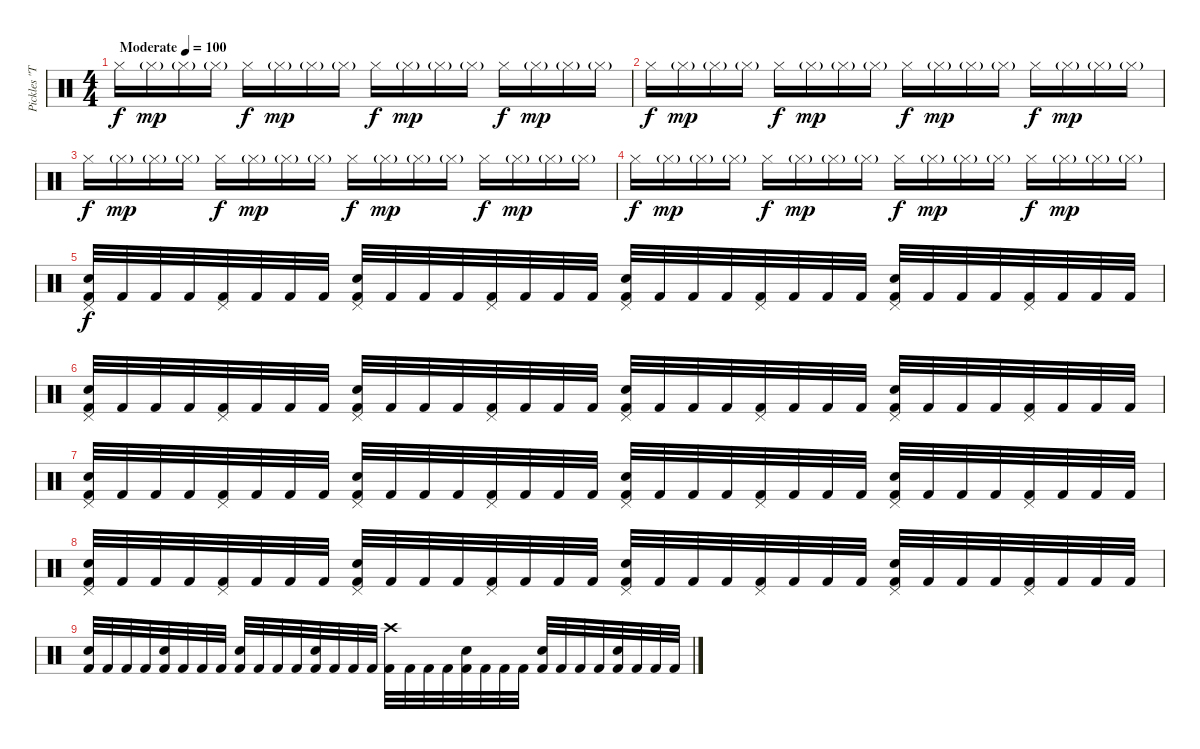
\track ("Pickles \"The Drummer\"" "Pickles \"T") {instrument percussion}
\staff {score}
\articulation defaults
\ts (4 4)
\tempo (100 "Moderate")
\clef neutral
\ks c "Hi-Hat (closed)".16{dy f} "Hi-Hat (closed)"{g}.16{dy mp} "Hi-Hat (closed)"{g}.16 "Hi-Hat (closed)"{g}.16 "Hi-Hat (closed)".16{dy f} "Hi-Hat (closed)"{g}.16{dy mp} "Hi-Hat (closed)"{g}.16 "Hi-Hat (closed)"{g}.16 "Hi-Hat (closed)".16{dy f} "Hi-Hat (closed)"{g}.16{dy mp} "Hi-Hat (closed)"{g}.16 "Hi-Hat (closed)"{g}.16 "Hi-Hat (closed)".16{dy f} "Hi-Hat (closed)"{g}.16{dy mp} "Hi-Hat (closed)"{g}.16 "Hi-Hat (closed)"{g}.16
|
"Hi-Hat (closed)".16{dy f} "Hi-Hat (closed)"{g}.16{dy mp} "Hi-Hat (closed)"{g}.16 "Hi-Hat (closed)"{g}.16 "Hi-Hat (closed)".16{dy f} "Hi-Hat (closed)"{g}.16{dy mp} "Hi-Hat (closed)"{g}.16 "Hi-Hat (closed)"{g}.16 "Hi-Hat (closed)".16{dy f} "Hi-Hat (closed)"{g}.16{dy mp} "Hi-Hat (closed)"{g}.16 "Hi-Hat (closed)"{g}.16 "Hi-Hat (closed)".16{dy f} "Hi-Hat (closed)"{g}.16{dy mp} "Hi-Hat (closed)"{g}.16 "Hi-Hat (closed)"{g}.16 |
"Hi-Hat (closed)".16{dy f} "Hi-Hat (closed)"{g}.16{dy mp} "Hi-Hat (closed)"{g}.16 "Hi-Hat (closed)"{g}.16 "Hi-Hat (closed)".16{dy f} "Hi-Hat (closed)"{g}.16{dy mp} "Hi-Hat (closed)"{g}.16 "Hi-Hat (closed)"{g}.16 "Hi-Hat (closed)".16{dy f} "Hi-Hat (closed)"{g}.16{dy mp} "Hi-Hat (closed)"{g}.16 "Hi-Hat (closed)"{g}.16 "Hi-Hat (closed)".16{dy f} "Hi-Hat (closed)"{g}.16{dy mp} "Hi-Hat (closed)"{g}.16 "Hi-Hat (closed)"{g}.16 |
"Hi-Hat (closed)".16{dy f} "Hi-Hat (closed)"{g}.16{dy mp} "Hi-Hat (closed)"{g}.16 "Hi-Hat (closed)"{g}.16 "Hi-Hat (closed)".16{dy f} "Hi-Hat (closed)"{g}.16{dy mp} "Hi-Hat (closed)"{g}.16 "Hi-Hat (closed)"{g}.16 "Hi-Hat (closed)".16{dy f} "Hi-Hat (closed)"{g}.16{dy mp} "Hi-Hat (closed)"{g}.16 "Hi-Hat (closed)"{g}.16 "Hi-Hat (closed)".16{dy f} "Hi-Hat (closed)"{g}.16{dy mp} "Hi-Hat (closed)"{g}.16 "Hi-Hat (closed)"{g}.16 |
("Pedal Hi-Hat (hit)" "Electric Snare (hit)" "Kick (hit) 2").32{dy f} "Kick (hit) 2".32 "Kick (hit) 2".32 "Kick (hit) 2".32 ("Pedal Hi-Hat (hit)" "Kick (hit) 2").32 "Kick (hit) 2".32 "Kick (hit) 2".32 "Kick (hit) 2".32 ("Pedal Hi-Hat (hit)" "Electric Snare (hit)" "Kick (hit) 2").32 "Kick (hit) 2".32 "Kick (hit) 2".32 "Kick (hit) 2".32 ("Pedal Hi-Hat (hit)" "Kick (hit) 2").32 "Kick (hit) 2".32 "Kick (hit) 2".32 "Kick (hit) 2".32 ("Pedal Hi-Hat (hit)" "Electric Snare (hit)" "Kick (hit) 2").32 "Kick (hit) 2".32 "Kick (hit) 2".32 "Kick (hit) 2".32 ("Pedal Hi-Hat (hit)" "Kick (hit) 2").32 "Kick (hit) 2".32 "Kick (hit) 2".32 "Kick (hit) 2".32 ("Pedal Hi-Hat (hit)" "Electric Snare (hit)" "Kick (hit) 2").32 "Kick (hit) 2".32 "Kick (hit) 2".32 "Kick (hit) 2".32 ("Pedal Hi-Hat (hit)" "Kick (hit) 2").32 "Kick (hit) 2".32 "Kick (hit) 2".32 "Kick (hit) 2".32 |
("Pedal Hi-Hat (hit)" "Electric Snare (hit)" "Kick (hit) 2").32 "Kick (hit) 2".32 "Kick (hit) 2".32 "Kick (hit) 2".32 ("Pedal Hi-Hat (hit)" "Kick (hit) 2").32 "Kick (hit) 2".32 "Kick (hit) 2".32 "Kick (hit) 2".32 ("Pedal Hi-Hat (hit)" "Electric Snare (hit)" "Kick (hit) 2").32 "Kick (hit) 2".32 "Kick (hit) 2".32 "Kick (hit) 2".32 ("Pedal Hi-Hat (hit)" "Kick (hit) 2").32 "Kick (hit) 2".32 "Kick (hit) 2".32 "Kick (hit) 2".32 ("Pedal Hi-Hat (hit)" "Electric Snare (hit)" "Kick (hit) 2").32 "Kick (hit) 2".32 "Kick (hit) 2".32 "Kick (hit) 2".32 ("Pedal Hi-Hat (hit)" "Kick (hit) 2").32 "Kick (hit) 2".32 "Kick (hit) 2".32 "Kick (hit) 2".32 ("Pedal Hi-Hat (hit)" "Electric Snare (hit)" "Kick (hit) 2").32 "Kick (hit) 2".32 "Kick (hit) 2".32 "Kick (hit) 2".32 ("Pedal Hi-Hat (hit)" "Kick (hit) 2").32 "Kick (hit) 2".32 "Kick (hit) 2".32 "Kick (hit) 2".32 |
("Pedal Hi-Hat (hit)" "Electric Snare (hit)" "Kick (hit) 2").32 "Kick (hit) 2".32 "Kick (hit) 2".32 "Kick (hit) 2".32 ("Pedal Hi-Hat (hit)" "Kick (hit) 2").32 "Kick (hit) 2".32 "Kick (hit) 2".32 "Kick (hit) 2".32 ("Pedal Hi-Hat (hit)" "Electric Snare (hit)" "Kick (hit) 2").32 "Kick (hit) 2".32 "Kick (hit) 2".32 "Kick (hit) 2".32 ("Pedal Hi-Hat (hit)" "Kick (hit) 2").32 "Kick (hit) 2".32 "Kick (hit) 2".32 "Kick (hit) 2".32 ("Pedal Hi-Hat (hit)" "Electric Snare (hit)" "Kick (hit) 2").32 "Kick (hit) 2".32 "Kick (hit) 2".32 "Kick (hit) 2".32 ("Pedal Hi-Hat (hit)" "Kick (hit) 2").32 "Kick (hit) 2".32 "Kick (hit) 2".32 "Kick (hit) 2".32 ("Pedal Hi-Hat (hit)" "Electric Snare (hit)" "Kick (hit) 2").32 "Kick (hit) 2".32 "Kick (hit) 2".32 "Kick (hit) 2".32 ("Pedal Hi-Hat (hit)" "Kick (hit) 2").32 "Kick (hit) 2".32 "Kick (hit) 2".32 "Kick (hit) 2".32 |
("Pedal Hi-Hat (hit)" "Electric Snare (hit)" "Kick (hit) 2").32 "Kick (hit) 2".32 "Kick (hit) 2".32 "Kick (hit) 2".32 ("Pedal Hi-Hat (hit)" "Kick (hit) 2").32 "Kick (hit) 2".32 "Kick (hit) 2".32 "Kick (hit) 2".32 ("Pedal Hi-Hat (hit)" "Electric Snare (hit)" "Kick (hit) 2").32 "Kick (hit) 2".32 "Kick (hit) 2".32 "Kick (hit) 2".32 ("Pedal Hi-Hat (hit)" "Kick (hit) 2").32 "Kick (hit) 2".32 "Kick (hit) 2".32 "Kick (hit) 2".32 ("Pedal Hi-Hat (hit)" "Electric Snare (hit)" "Kick (hit) 2").32 "Kick (hit) 2".32 "Kick (hit) 2".32 "Kick (hit) 2".32 ("Pedal Hi-Hat (hit)" "Kick (hit) 2").32 "Kick (hit) 2".32 "Kick (hit) 2".32 "Kick (hit) 2".32 ("Pedal Hi-Hat (hit)" "Electric Snare (hit)" "Kick (hit) 2").32 "Kick (hit) 2".32 "Kick (hit) 2".32 "Kick (hit) 2".32 ("Pedal Hi-Hat (hit)" "Kick (hit) 2").32 "Kick (hit) 2".32 "Kick (hit) 2".32 "Kick (hit) 2".32 |
("Electric Snare (hit)" "Kick (hit) 2").32 "Kick (hit) 2".32 "Kick (hit) 2".32 "Kick (hit) 2".32 ("Electric Snare (hit)" "Kick (hit) 2").32 "Kick (hit) 2".32 "Kick (hit) 2".32 "Kick (hit) 2".32 ("Electric Snare (hit)" "Kick (hit) 2").32 "Kick (hit) 2".32 "Kick (hit) 2".32 "Kick (hit) 2".32 ("Electric Snare (hit)" "Kick (hit) 2").32 "Kick (hit) 2".32 "Kick (hit) 2".32 "Kick (hit) 2".32 ("Crash high (hit)" "Kick (hit) 2").32 "Kick (hit) 2".32 "Kick (hit) 2".32 "Kick (hit) 2".32 ("Electric Snare (hit)" "Kick (hit) 2").32 "Kick (hit) 2".32 "Kick (hit) 2".32 "Kick (hit) 2".32 ("Electric Snare (hit)" "Kick (hit) 2").32 "Kick (hit) 2".32 "Kick (hit) 2".32 "Kick (hit) 2".32 ("Electric Snare (hit)" "Kick (hit) 2").32 "Kick (hit) 2".32 "Kick (hit) 2".32 "Kick (hit) 2".32
